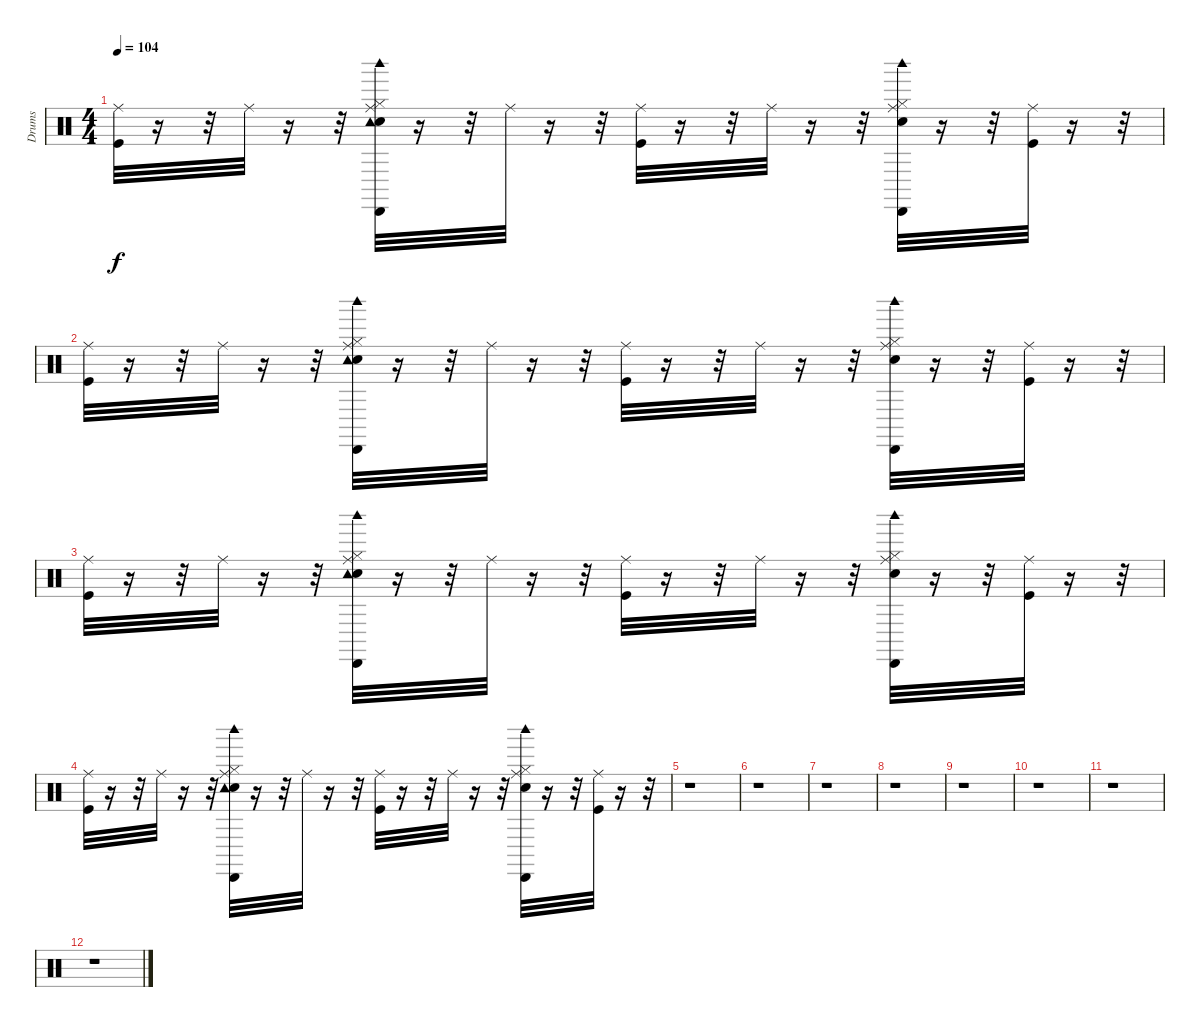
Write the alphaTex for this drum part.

\track ("Drums" "Drums") {instrument percussion}
\staff {score}
\articulation defaults
\ts (4 4)
\tempo 104
\clef neutral
\ks c
("Kick (hit)" "Ride (middle)").32{dy f volume 4} r.16 r.32 "Ride (middle)".32 r.16 r.32 ("Snare (hit) 2" "Hi-Hat (closed)" "Ride (middle)" "Tambourine (hit)" "Cabasa (hit)" "Woodblock high (hit)").32 r.16 r.32 "Ride (middle)".32 r.16 r.32 ("Kick (hit)" "Ride (middle)").32 r.16 r.32 "Ride (middle)".32 r.16 r.32 ("Snare (hit) 2" "Hi-Hat (closed)" "Ride (middle)" "Cabasa (hit)" "Woodblock high (hit)").32 r.16 r.32 ("Kick (hit)" "Ride (middle)").32 r.16 r.32 |
("Kick (hit)" "Ride (middle)").32 r.16 r.32 "Ride (middle)".32 r.16 r.32 ("Snare (hit) 2" "Hi-Hat (closed)" "Ride (middle)" "Tambourine (hit)" "Cabasa (hit)" "Woodblock high (hit)").32 r.16 r.32 "Ride (middle)".32 r.16 r.32 ("Kick (hit)" "Ride (middle)").32 r.16 r.32 "Ride (middle)".32 r.16 r.32 ("Snare (hit) 2" "Hi-Hat (closed)" "Ride (middle)" "Cabasa (hit)" "Woodblock high (hit)").32 r.16 r.32 ("Kick (hit)" "Ride (middle)").32 r.16 r.32 |
("Kick (hit)" "Ride (middle)").32{volume 0} r.16 r.32 "Ride (middle)".32 r.16 r.32 ("Snare (hit) 2" "Hi-Hat (closed)" "Ride (middle)" "Tambourine (hit)" "Cabasa (hit)" "Woodblock high (hit)").32 r.16 r.32 "Ride (middle)".32 r.16 r.32 ("Kick (hit)" "Ride (middle)").32 r.16 r.32 "Ride (middle)".32 r.16 r.32 ("Snare (hit) 2" "Hi-Hat (closed)" "Ride (middle)" "Cabasa (hit)" "Woodblock high (hit)").32 r.16 r.32 ("Kick (hit)" "Ride (middle)").32 r.16 r.32 |
("Kick (hit)" "Ride (middle)").32 r.16 r.32 "Ride (middle)".32 r.16 r.32 ("Snare (hit) 2" "Hi-Hat (closed)" "Ride (middle)" "Tambourine (hit)" "Cabasa (hit)" "Woodblock high (hit)").32 r.16 r.32 "Ride (middle)".32 r.16 r.32 ("Kick (hit)" "Ride (middle)").32 r.16 r.32 "Ride (middle)".32 r.16 r.32 ("Snare (hit) 2" "Hi-Hat (closed)" "Ride (middle)" "Cabasa (hit)" "Woodblock high (hit)").32 r.16 r.32 ("Kick (hit)" "Ride (middle)").32 r.16 r.32 |
r.1 |
r.1 |
r.1 |
r.1 |
r.1 |
r.1 |
r.1 |
r.1
